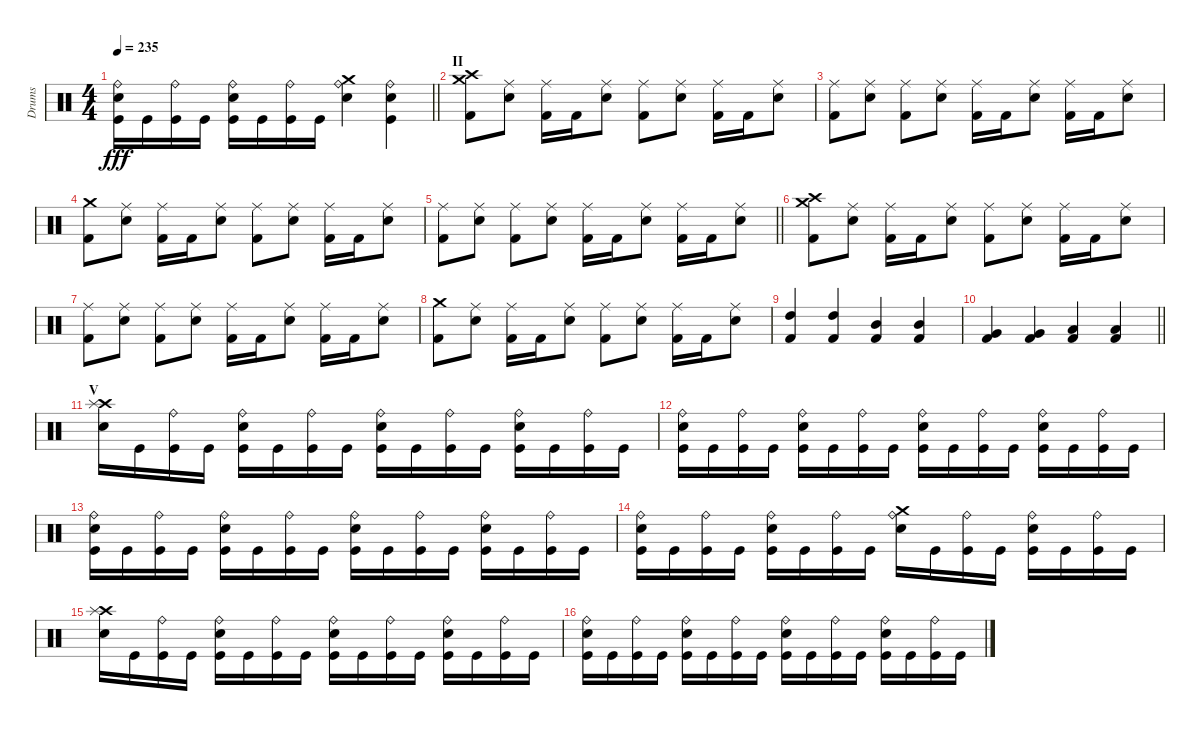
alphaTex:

\track ("Drums" "Drums") {instrument percussion}
\staff {score}
\articulation defaults
\ts (4 4)
\tempo 235
\clef neutral
\barLineRight lightlight
\ks c
("Kick (hit)" "Electric Snare (hit)" "Ride (bell)").16{dy fff} "Kick (hit)".16 ("Kick (hit)" "Ride (bell)").16 "Kick (hit)".16 ("Kick (hit)" "Electric Snare (hit)" "Ride (bell)").16 "Kick (hit)".16 ("Kick (hit)" "Ride (bell)").16 "Kick (hit)".16 ("Crash medium (hit)" "Electric Snare (hit)" "Ride (bell)").4 ("Kick (hit)" "Electric Snare (hit)" "Ride (bell)").4 |
\section ("" "II")
("Crash high (hit)" "Crash medium (hit)" "Kick (hit) 2").8 ("Ride (middle)" "Electric Snare (hit)").8 ("Ride (middle)" "Kick (hit) 2").16 "Kick (hit) 2".16 ("Ride (middle)" "Electric Snare (hit)").8 ("Ride (middle)" "Kick (hit) 2").8 ("Ride (middle)" "Electric Snare (hit)").8 ("Ride (middle)" "Kick (hit) 2").16 "Kick (hit) 2".16 ("Ride (middle)" "Electric Snare (hit)").8 |
("Ride (middle)" "Kick (hit) 2").8 ("Ride (middle)" "Electric Snare (hit)").8 ("Ride (middle)" "Kick (hit) 2").8 ("Ride (middle)" "Electric Snare (hit)").8 ("Ride (middle)" "Kick (hit) 2").16 "Kick (hit) 2".16 ("Ride (middle)" "Electric Snare (hit)").8 ("Ride (middle)" "Kick (hit) 2").16 "Kick (hit) 2".16 ("Ride (middle)" "Electric Snare (hit)").8 |
("Crash medium (hit)" "Kick (hit) 2").8 ("Ride (middle)" "Electric Snare (hit)").8 ("Ride (middle)" "Kick (hit) 2").16 "Kick (hit) 2".16 ("Ride (middle)" "Electric Snare (hit)").8 ("Ride (middle)" "Kick (hit) 2").8 ("Ride (middle)" "Electric Snare (hit)").8 ("Ride (middle)" "Kick (hit) 2").16 "Kick (hit) 2".16 ("Ride (middle)" "Electric Snare (hit)").8 |
\barLineRight lightlight
("Ride (middle)" "Kick (hit) 2").8 ("Ride (middle)" "Electric Snare (hit)").8 ("Ride (middle)" "Kick (hit) 2").8 ("Ride (middle)" "Electric Snare (hit)").8 ("Ride (middle)" "Kick (hit) 2").16 "Kick (hit) 2".16 ("Ride (middle)" "Electric Snare (hit)").8 ("Ride (middle)" "Kick (hit) 2").16 "Kick (hit) 2".16 ("Ride (middle)" "Electric Snare (hit)").8 |
("Crash high (hit)" "Crash medium (hit)" "Kick (hit) 2").8 ("Ride (middle)" "Electric Snare (hit)").8 ("Ride (middle)" "Kick (hit) 2").16 "Kick (hit) 2".16 ("Ride (middle)" "Electric Snare (hit)").8 ("Ride (middle)" "Kick (hit) 2").8 ("Ride (middle)" "Electric Snare (hit)").8 ("Ride (middle)" "Kick (hit) 2").16 "Kick (hit) 2".16 ("Ride (middle)" "Electric Snare (hit)").8 |
("Ride (middle)" "Kick (hit) 2").8 ("Ride (middle)" "Electric Snare (hit)").8 ("Ride (middle)" "Kick (hit) 2").8 ("Ride (middle)" "Electric Snare (hit)").8 ("Ride (middle)" "Kick (hit) 2").16 "Kick (hit) 2".16 ("Ride (middle)" "Electric Snare (hit)").8 ("Ride (middle)" "Kick (hit) 2").16 "Kick (hit) 2".16 ("Ride (middle)" "Electric Snare (hit)").8 |
("Crash medium (hit)" "Kick (hit) 2").8 ("Ride (middle)" "Electric Snare (hit)").8 ("Ride (middle)" "Kick (hit) 2").16 "Kick (hit) 2".16 ("Ride (middle)" "Electric Snare (hit)").8 ("Ride (middle)" "Kick (hit) 2").8 ("Ride (middle)" "Electric Snare (hit)").8 ("Ride (middle)" "Kick (hit) 2").16 "Kick (hit) 2".16 ("Ride (middle)" "Electric Snare (hit)").8 |
("High Tom (hit)" "Kick (hit) 2").4 ("High Tom (hit)" "Kick (hit) 2").4 ("Mid Tom (hit)" "Kick (hit) 2").4 ("Mid Tom (hit)" "Kick (hit) 2").4 |
\barLineRight lightlight
("Very Low Tom (hit)" "Kick (hit) 2").4 ("Very Low Tom (hit)" "Kick (hit) 2").4 ("Low Floor Tom (hit)" "Kick (hit) 2").4 ("Low Floor Tom (hit)" "Kick (hit) 2").4 |
\section ("" "V")
("Crash high (hit)" "Electric Snare (hit)" "Splash (hit)").16 "Kick (hit)".16 ("Kick (hit)" "Ride (bell)").16 "Kick (hit)".16 ("Kick (hit)" "Electric Snare (hit)" "Ride (bell)").16 "Kick (hit)".16 ("Kick (hit)" "Ride (bell)").16 "Kick (hit)".16 ("Kick (hit)" "Electric Snare (hit)" "Ride (bell)").16 "Kick (hit)".16 ("Kick (hit)" "Ride (bell)").16 "Kick (hit)".16 ("Kick (hit)" "Electric Snare (hit)" "Ride (bell)").16 "Kick (hit)".16 ("Kick (hit)" "Ride (bell)").16 "Kick (hit)".16 |
("Kick (hit)" "Electric Snare (hit)" "Ride (bell)").16 "Kick (hit)".16 ("Kick (hit)" "Ride (bell)").16 "Kick (hit)".16 ("Kick (hit)" "Electric Snare (hit)" "Ride (bell)").16 "Kick (hit)".16 ("Kick (hit)" "Ride (bell)").16 "Kick (hit)".16 ("Kick (hit)" "Electric Snare (hit)" "Ride (bell)").16 "Kick (hit)".16 ("Kick (hit)" "Ride (bell)").16 "Kick (hit)".16 ("Kick (hit)" "Electric Snare (hit)" "Ride (bell)").16 "Kick (hit)".16 ("Kick (hit)" "Ride (bell)").16 "Kick (hit)".16 |
("Kick (hit)" "Electric Snare (hit)" "Ride (bell)").16 "Kick (hit)".16 ("Kick (hit)" "Ride (bell)").16 "Kick (hit)".16 ("Kick (hit)" "Electric Snare (hit)" "Ride (bell)").16 "Kick (hit)".16 ("Kick (hit)" "Ride (bell)").16 "Kick (hit)".16 ("Kick (hit)" "Electric Snare (hit)" "Ride (bell)").16 "Kick (hit)".16 ("Kick (hit)" "Ride (bell)").16 "Kick (hit)".16 ("Kick (hit)" "Electric Snare (hit)" "Ride (bell)").16 "Kick (hit)".16 ("Kick (hit)" "Ride (bell)").16 "Kick (hit)".16 |
("Kick (hit)" "Electric Snare (hit)" "Ride (bell)").16 "Kick (hit)".16 ("Kick (hit)" "Ride (bell)").16 "Kick (hit)".16 ("Kick (hit)" "Electric Snare (hit)" "Ride (bell)").16 "Kick (hit)".16 ("Kick (hit)" "Ride (bell)").16 "Kick (hit)".16 ("Crash medium (hit)" "Electric Snare (hit)" "Ride (bell)").16 "Kick (hit)".16 ("Kick (hit)" "Ride (bell)").16 "Kick (hit)".16 ("Kick (hit)" "Electric Snare (hit)" "Ride (bell)").16 "Kick (hit)".16 ("Kick (hit)" "Ride (bell)").16 "Kick (hit)".16 |
("Crash high (hit)" "Electric Snare (hit)" "Splash (hit)").16 "Kick (hit)".16 ("Kick (hit)" "Ride (bell)").16 "Kick (hit)".16 ("Kick (hit)" "Electric Snare (hit)" "Ride (bell)").16 "Kick (hit)".16 ("Kick (hit)" "Ride (bell)").16 "Kick (hit)".16 ("Kick (hit)" "Electric Snare (hit)" "Ride (bell)").16 "Kick (hit)".16 ("Kick (hit)" "Ride (bell)").16 "Kick (hit)".16 ("Kick (hit)" "Electric Snare (hit)" "Ride (bell)").16 "Kick (hit)".16 ("Kick (hit)" "Ride (bell)").16 "Kick (hit)".16 |
("Kick (hit)" "Electric Snare (hit)" "Ride (bell)").16 "Kick (hit)".16 ("Kick (hit)" "Ride (bell)").16 "Kick (hit)".16 ("Kick (hit)" "Electric Snare (hit)" "Ride (bell)").16 "Kick (hit)".16 ("Kick (hit)" "Ride (bell)").16 "Kick (hit)".16 ("Kick (hit)" "Electric Snare (hit)" "Ride (bell)").16 "Kick (hit)".16 ("Kick (hit)" "Ride (bell)").16 "Kick (hit)".16 ("Kick (hit)" "Electric Snare (hit)" "Ride (bell)").16 "Kick (hit)".16 ("Kick (hit)" "Ride (bell)").16 "Kick (hit)".16
